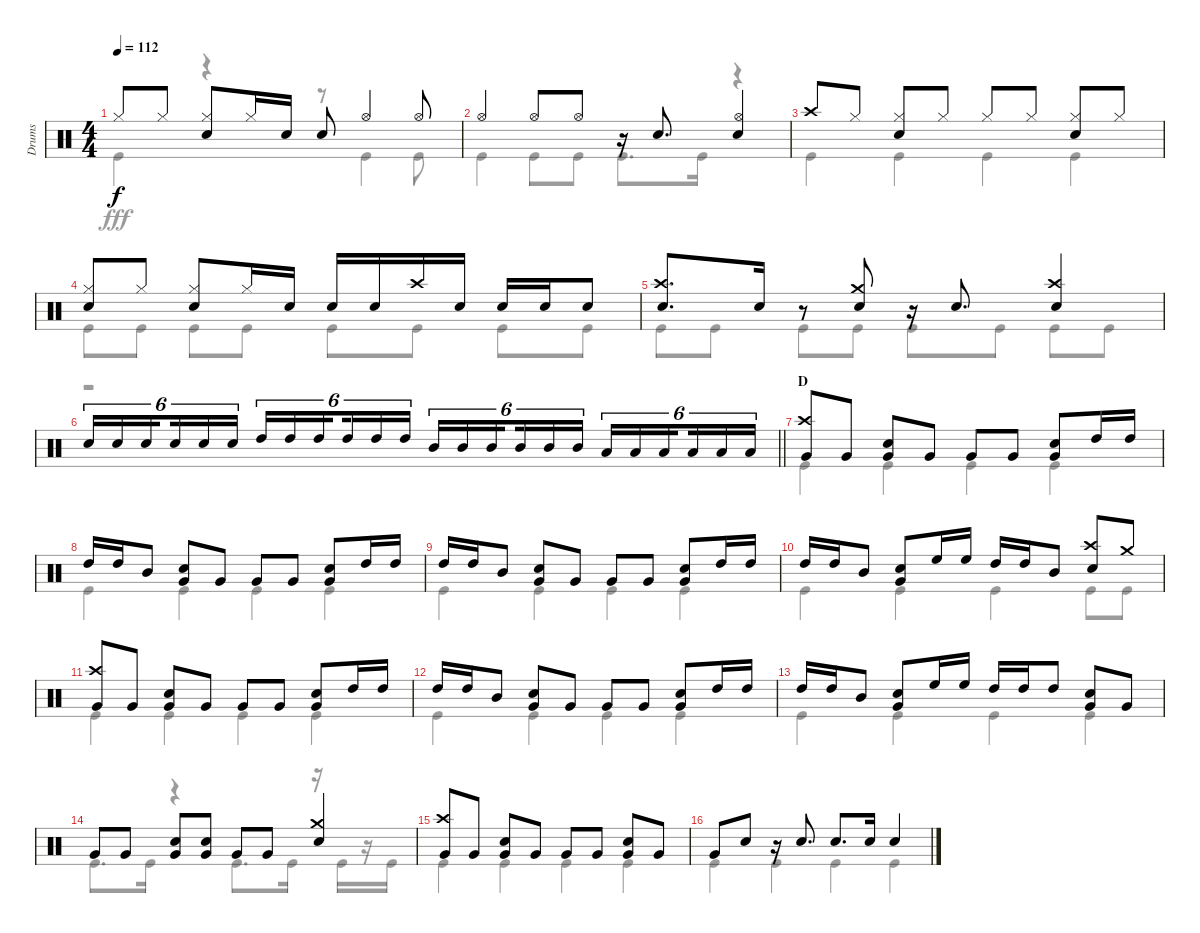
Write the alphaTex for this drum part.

\track ("Drums" "Drums") {instrument percussion}
\staff {score}
\articulation defaults
\voice
\ts (4 4)
\tempo 112
\clef neutral
\ks c "Hi-Hat (closed)".8{dy f} "Hi-Hat (closed)".8
("Hi-Hat (closed)" "Snare (hit) 2").8 "Hi-Hat (closed)".16 "Snare (hit) 2".16 "Snare (hit) 2".8 "Hi-Hat (open)".4 "Hi-Hat (open)".8 |
"Hi-Hat (open)".4 "Hi-Hat (open)".8 "Hi-Hat (open)".8 r.16 "Snare (hit) 2".8{d} ("Hi-Hat (open)" "Snare (hit) 2").4 |
"Crash high (hit)".8 "Hi-Hat (closed)".8 ("Hi-Hat (closed)" "Snare (hit) 2").8 "Hi-Hat (closed)".8 "Hi-Hat (closed)".8 "Hi-Hat (closed)".8 ("Hi-Hat (closed)" "Snare (hit) 2").8 "Hi-Hat (closed)".8 |
("Hi-Hat (closed)" "Snare (hit) 2").8 "Hi-Hat (closed)".8 ("Hi-Hat (closed)" "Snare (hit) 2").8 "Hi-Hat (closed)".16 "Snare (hit) 2".16 "Snare (hit) 2".16 "Snare (hit) 2".16 "Crash high (hit)".16 "Snare (hit) 2".16 "Snare (hit) 2".16 "Snare (hit) 2".16 "Snare (hit) 2".8 |
("Crash high (hit)" "Snare (hit) 2").8{d} "Snare (hit) 2".16 r.8 ("Crash medium (hit)" "Snare (hit) 2").8 r.16 "Snare (hit) 2".8{d} ("Crash high (hit)" "Snare (hit) 2").4 |
\barLineRight lightlight "Snare (hit) 2".16{tu (6 4)} "Snare (hit) 2".16{tu (6 4)} "Snare (hit) 2".16{tu (6 4) beam splitsecondary} "Snare (hit) 2".16{tu (6 4)} "Snare (hit) 2".16{tu (6 4)} "Snare (hit) 2".16{tu (6 4)} "High Tom (hit)".16{tu (6 4)} "High Tom (hit)".16{tu (6 4)} "High Tom (hit)".16{tu (6 4) beam splitsecondary} "High Tom (hit)".16{tu (6 4)} "High Tom (hit)".16{tu (6 4)} "High Tom (hit)".16{tu (6 4)} "Mid Tom (hit)".16{tu (6 4)} "Mid Tom (hit)".16{tu (6 4)} "Mid Tom (hit)".16{tu (6 4) beam splitsecondary} "Mid Tom (hit)".16{tu (6 4)} "Mid Tom (hit)".16{tu (6 4)} "Mid Tom (hit)".16{tu (6 4)} "Low Tom (hit)".16{tu (6 4)} "Low Tom (hit)".16{tu (6 4)} "Low Tom (hit)".16{tu (6 4) beam splitsecondary} "Low Tom (hit)".16{tu (6 4)} "Low Tom (hit)".16{tu (6 4)} "Low Tom (hit)".16{tu (6 4)}
|
\section ("" "D")
("Crash high (hit)" "Very Low Tom (hit)").8 "Very Low Tom (hit)".8 ("Very Low Tom (hit)" "Snare (hit) 2").8 "Very Low Tom (hit)".8 "Very Low Tom (hit)".8 "Very Low Tom (hit)".8 ("Very Low Tom (hit)" "Snare (hit) 2").8 "High Tom (hit)".16 "High Tom (hit)".16 |
"High Tom (hit)".16 "High Tom (hit)".16 "Mid Tom (hit)".8 ("Very Low Tom (hit)" "Snare (hit) 2").8 "Very Low Tom (hit)".8 "Very Low Tom (hit)".8 "Very Low Tom (hit)".8 ("Very Low Tom (hit)" "Snare (hit) 2").8 "High Tom (hit)".16 "High Tom (hit)".16 |
"High Tom (hit)".16 "High Tom (hit)".16 "Mid Tom (hit)".8 ("Very Low Tom (hit)" "Snare (hit) 2").8 "Very Low Tom (hit)".8 "Very Low Tom (hit)".8 "Very Low Tom (hit)".8 ("Very Low Tom (hit)" "Snare (hit) 2").8 "High Tom (hit)".16 "High Tom (hit)".16 |
"High Tom (hit)".16 "High Tom (hit)".16 "Mid Tom (hit)".8 ("Snare (hit) 2" "Very Low Tom (hit)").8 "High Floor Tom (hit)".16 "High Floor Tom (hit)".16 "High Tom (hit)".16 "High Tom (hit)".16 "Mid Tom (hit)".8 ("Snare (hit) 2" "Crash high (hit)").8 "Crash medium (hit)".8 |
("Crash high (hit)" "Very Low Tom (hit)").8 "Very Low Tom (hit)".8 ("Very Low Tom (hit)" "Snare (hit) 2").8 "Very Low Tom (hit)".8 "Very Low Tom (hit)".8 "Very Low Tom (hit)".8 ("Very Low Tom (hit)" "Snare (hit) 2").8 "High Tom (hit)".16 "High Tom (hit)".16 |
"High Tom (hit)".16 "High Tom (hit)".16 "Mid Tom (hit)".8 ("Very Low Tom (hit)" "Snare (hit) 2").8 "Very Low Tom (hit)".8 "Very Low Tom (hit)".8 "Very Low Tom (hit)".8 ("Very Low Tom (hit)" "Snare (hit) 2").8 "High Tom (hit)".16 "High Tom (hit)".16 |
"High Tom (hit)".16 "High Tom (hit)".16 "Mid Tom (hit)".8 ("Snare (hit) 2" "Very Low Tom (hit)").8 "High Floor Tom (hit)".16 "High Floor Tom (hit)".16 "High Tom (hit)".16 "High Tom (hit)".16 "High Tom (hit)".8 ("Snare (hit) 2" "Very Low Tom (hit)").8 "Very Low Tom (hit)".8 |
"Very Low Tom (hit)".8 "Very Low Tom (hit)".8 ("Very Low Tom (hit)" "Snare (hit) 2").8 ("Snare (hit) 2" "Very Low Tom (hit)").8 "Very Low Tom (hit)".8 "Very Low Tom (hit)".8 ("Crash medium (hit)" "Snare (hit) 2").4 |
("Crash high (hit)" "Very Low Tom (hit)").8 "Very Low Tom (hit)".8 ("Very Low Tom (hit)" "Snare (hit) 2").8 "Very Low Tom (hit)".8 "Very Low Tom (hit)".8 "Very Low Tom (hit)".8 ("Very Low Tom (hit)" "Snare (hit) 2").8 "Very Low Tom (hit)".8 |
"Very Low Tom (hit)".8 "Snare (hit) 2".8 r.16 "Snare (hit) 2".8{d} "Snare (hit) 2".8{d} "Snare (hit) 2".16 "Snare (hit) 2".4
\voice
\clef neutral
\ottava regular
\simile none
\ks c "Kick (hit)".4{dy fff}
r.4 r.8 "Kick (hit)".4 "Kick (hit)".8 |
"Kick (hit)".4 "Kick (hit)".8 "Kick (hit)".8 "Kick (hit)".8{d} "Kick (hit)".16 r.4 |
"Kick (hit)".4 "Kick (hit)".4 "Kick (hit)".4 "Kick (hit)".4 |
"Kick (hit)".8 "Kick (hit)".8 "Kick (hit)".8 "Kick (hit)".8 "Kick (hit)".8 "Kick (hit)".8 "Kick (hit)".8 "Kick (hit)".8 |
"Kick (hit)".8 "Kick (hit)".8 "Kick (hit)".8 "Kick (hit)".8 "Kick (hit)".8 "Kick (hit)".8 "Kick (hit)".8 "Kick (hit)".8 |
\barLineRight lightlight
r.1 |
"Kick (hit)".4 "Kick (hit)".4 "Kick (hit)".4 "Kick (hit)".4 |
"Kick (hit)".4 "Kick (hit)".4 "Kick (hit)".4 "Kick (hit)".4 |
"Kick (hit)".4 "Kick (hit)".4 "Kick (hit)".4 "Kick (hit)".4 |
"Kick (hit)".4 "Kick (hit)".4 "Kick (hit)".4 "Kick (hit)".8 "Kick (hit)".8 |
"Kick (hit)".4 "Kick (hit)".4 "Kick (hit)".4 "Kick (hit)".4 |
"Kick (hit)".4 "Kick (hit)".4 "Kick (hit)".4 "Kick (hit)".4 |
"Kick (hit)".4 "Kick (hit)".4 "Kick (hit)".4 "Kick (hit)".4 |
"Kick (hit)".8{d} "Kick (hit)".16 r.4 "Kick (hit)".8{d} "Kick (hit)".16 r.16 "Kick (hit)".16 r.16 "Kick (hit)".16 |
"Kick (hit)".4 "Kick (hit)".4 "Kick (hit)".4 "Kick (hit)".4 |
"Kick (hit)".4 "Kick (hit)".4 "Kick (hit)".4 "Kick (hit)".4
